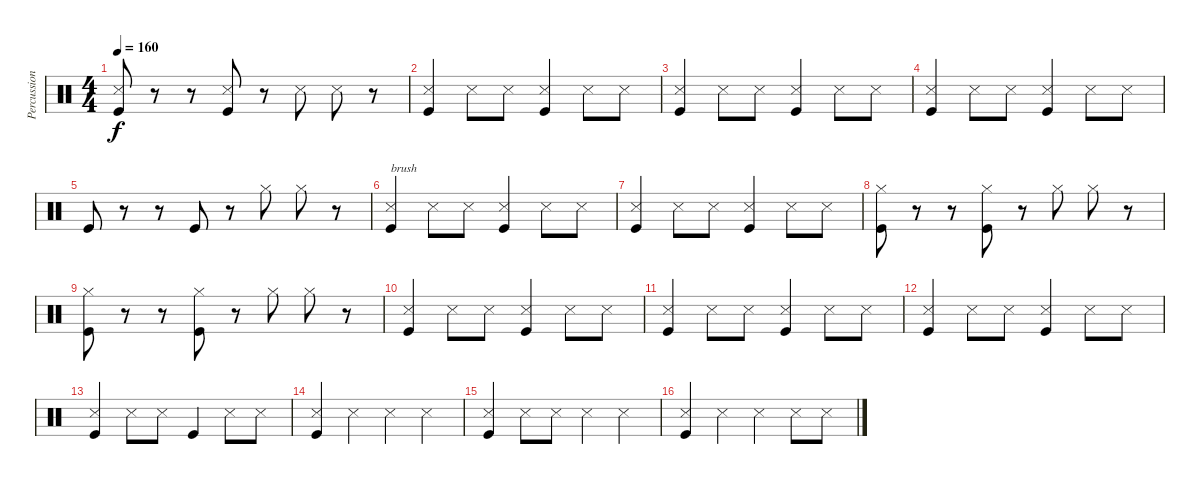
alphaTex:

\track ("Percussion" "Percussion") {instrument percussion}
\staff {score}
\articulation defaults
\ts (4 4)
\tempo 160
\clef neutral
\ks c
("Snare (side stick) 3" "Kick (hit)").8{dy f} r.8 r.8 ("Snare (side stick) 3" "Kick (hit)").8 r.8 "Snare (side stick) 3".8 "Snare (side stick) 3".8 r.8 |
("Snare (side stick) 3" "Kick (hit)").4 "Snare (side stick) 3".8 "Snare (side stick) 3".8 ("Snare (side stick) 3" "Kick (hit)").4 "Snare (side stick) 3".8 "Snare (side stick) 3".8 |
("Snare (side stick) 3" "Kick (hit)").4 "Snare (side stick) 3".8 "Snare (side stick) 3".8 ("Snare (side stick) 3" "Kick (hit)").4 "Snare (side stick) 3".8 "Snare (side stick) 3".8 |
("Snare (side stick) 3" "Kick (hit)").4 "Snare (side stick) 3".8 "Snare (side stick) 3".8 ("Snare (side stick) 3" "Kick (hit)").4 "Snare (side stick) 3".8 "Snare (side stick) 3".8 |
"Kick (hit)".8 r.8 r.8 "Kick (hit)".8 r.8 "Hi-Hat (closed)".8 "Hi-Hat (closed)".8 r.8 |
("Snare (side stick) 3" "Kick (hit)").4{txt "brush"} "Snare (side stick) 3".8 "Snare (side stick) 3".8 ("Snare (side stick) 3" "Kick (hit)").4 "Snare (side stick) 3".8 "Snare (side stick) 3".8 |
("Snare (side stick) 3" "Kick (hit)").4 "Snare (side stick) 3".8 "Snare (side stick) 3".8 ("Snare (side stick) 3" "Kick (hit)").4 "Snare (side stick) 3".8 "Snare (side stick) 3".8 |
("Hi-Hat (closed)" "Kick (hit)").8 r.8 r.8 ("Hi-Hat (closed)" "Kick (hit)").8 r.8 "Hi-Hat (closed)".8 "Hi-Hat (closed)".8 r.8 |
("Hi-Hat (closed)" "Kick (hit)").8 r.8 r.8 ("Hi-Hat (closed)" "Kick (hit)").8 r.8 "Hi-Hat (closed)".8 "Hi-Hat (closed)".8 r.8 |
("Snare (side stick) 3" "Kick (hit)").4 "Snare (side stick) 3".8 "Snare (side stick) 3".8 ("Snare (side stick) 3" "Kick (hit)").4 "Snare (side stick) 3".8 "Snare (side stick) 3".8 |
("Snare (side stick) 3" "Kick (hit)").4 "Snare (side stick) 3".8 "Snare (side stick) 3".8 ("Snare (side stick) 3" "Kick (hit)").4 "Snare (side stick) 3".8 "Snare (side stick) 3".8 |
("Snare (side stick) 3" "Kick (hit)").4 "Snare (side stick) 3".8 "Snare (side stick) 3".8 ("Snare (side stick) 3" "Kick (hit)").4 "Snare (side stick) 3".8 "Snare (side stick) 3".8 |
("Snare (side stick) 3" "Kick (hit)").4 "Snare (side stick) 3".8 "Snare (side stick) 3".8 "Kick (hit)".4 "Snare (side stick) 3".8 "Snare (side stick) 3".8 |
("Snare (side stick) 3" "Kick (hit)").4 "Snare (side stick) 3".4 "Snare (side stick) 3".4 "Snare (side stick) 3".4 |
("Snare (side stick) 3" "Kick (hit)").4 "Snare (side stick) 3".8 "Snare (side stick) 3".8 "Snare (side stick) 3".4 "Snare (side stick) 3".4 |
("Snare (side stick) 3" "Kick (hit)").4 "Snare (side stick) 3".4 "Snare (side stick) 3".4 "Snare (side stick) 3".8 "Snare (side stick) 3".8
